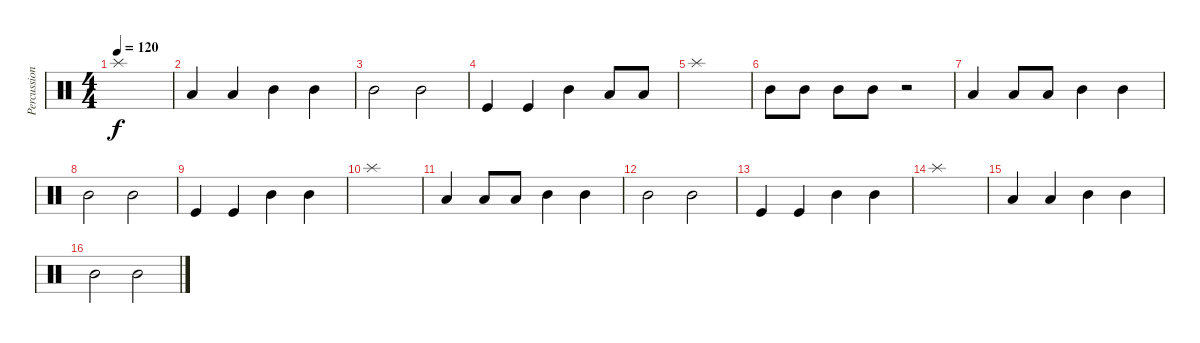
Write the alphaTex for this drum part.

\track ("Percussion" "Percussion") {instrument percussion}
\staff {score}
\articulation defaults
\ts (4 4)
\tempo 120
\clef neutral
\ks c "Splash (hit)".1{dy f}
|
"Low Tom (hit)".4 "Low Tom (hit)".4 "Mid Tom (hit)".4 "Mid Tom (hit)".4 |
"Mid Tom (hit)".2 "Mid Tom (hit)".2 |
"Kick (hit)".4 "Kick (hit)".4 "Mid Tom (hit)".4 "Low Tom (hit)".8 "Low Tom (hit)".8 |
"Splash (hit)".1 |
"Mid Tom (hit)".8 "Mid Tom (hit)".8 "Mid Tom (hit)".8 "Mid Tom (hit)".8 r.2 |
"Low Tom (hit)".4 "Low Tom (hit)".8 "Low Tom (hit)".8 "Mid Tom (hit)".4 "Mid Tom (hit)".4 |
"Mid Tom (hit)".2 "Mid Tom (hit)".2 |
"Kick (hit)".4 "Kick (hit)".4 "Mid Tom (hit)".4 "Mid Tom (hit)".4 |
"Splash (hit)".1 |
"Low Tom (hit)".4 "Low Tom (hit)".8 "Low Tom (hit)".8 "Mid Tom (hit)".4 "Mid Tom (hit)".4 |
"Mid Tom (hit)".2 "Mid Tom (hit)".2 |
"Kick (hit)".4 "Kick (hit)".4 "Mid Tom (hit)".4 "Mid Tom (hit)".4 |
"Splash (hit)".1 |
"Low Tom (hit)".4 "Low Tom (hit)".4 "Mid Tom (hit)".4 "Mid Tom (hit)".4 |
"Mid Tom (hit)".2 "Mid Tom (hit)".2
